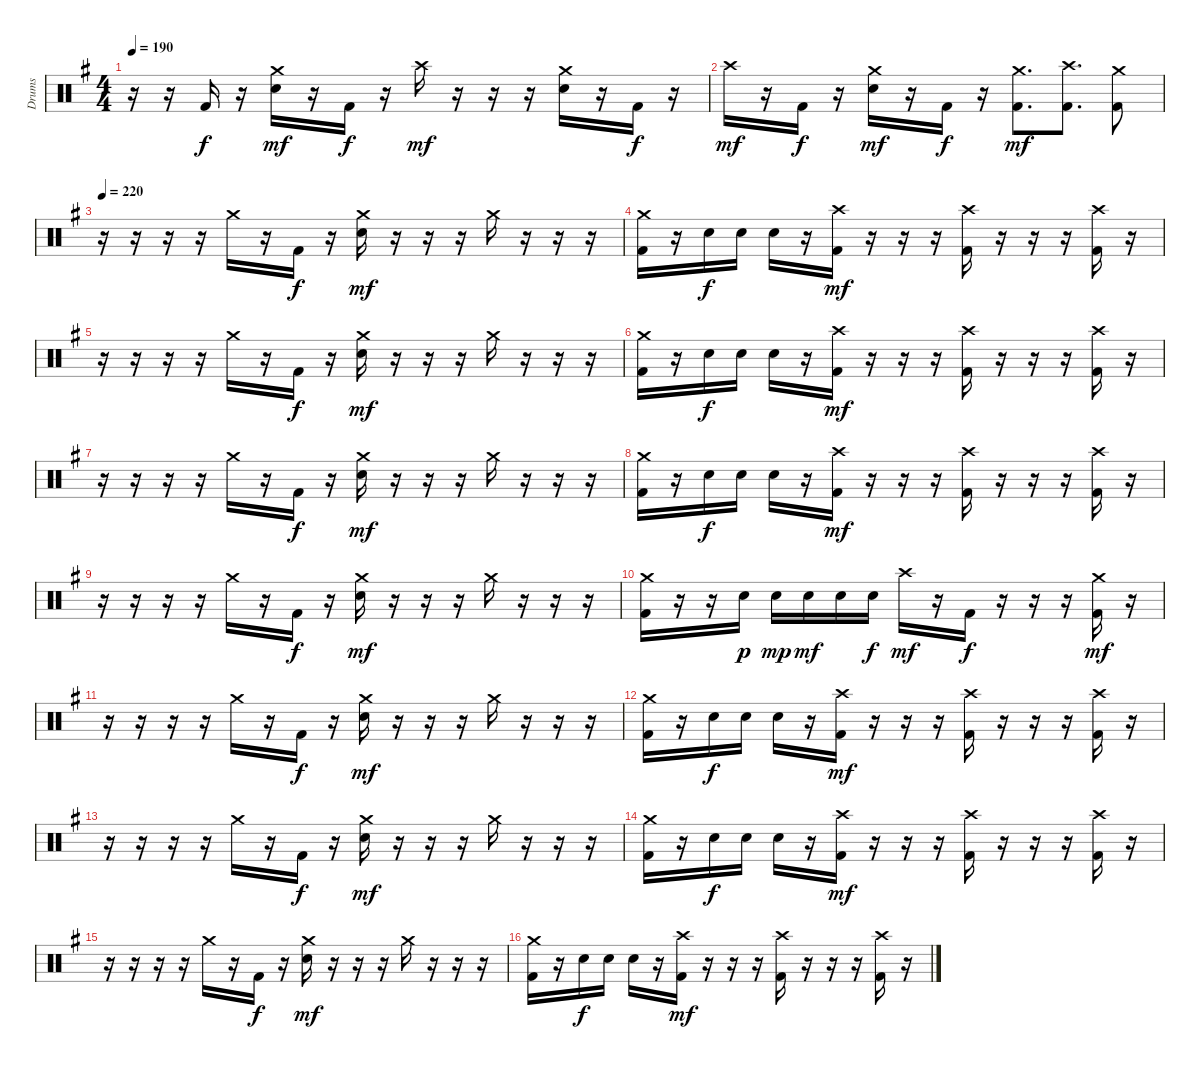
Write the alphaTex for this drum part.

\track ("Drums" "Drums") {instrument percussion}
\staff {score}
\articulation defaults
\ts (4 4)
\tempo 190
\clef neutral
\ks g
r.16{dy f} r.16 "Kick (hit) 2".16 r.16 ("Crash medium (hit)" "Snare (hit) 2").16{dy mf} r.16 "Kick (hit) 2".16{dy f} r.16 "Crash high (hit)".16{dy mf} r.16 r.16 r.16 ("Crash medium (hit)" "Snare (hit) 2").16 r.16 "Kick (hit) 2".16{dy f} r.16 |
"Crash high (hit)".16{dy mf} r.16 "Kick (hit) 2".16{dy f} r.16 ("Crash medium (hit)" "Snare (hit) 2").16{dy mf} r.16 "Kick (hit) 2".16{dy f} r.16 ("Crash medium (hit)" "Kick (hit) 2").8{d dy mf} ("Crash high (hit)" "Kick (hit) 2").8{d} ("Crash medium (hit)" "Kick (hit) 2").8 |
\tempo 220
r.16 r.16 r.16 r.16 "Crash medium (hit)".16 r.16 "Kick (hit) 2".16{dy f} r.16 ("Crash medium (hit)" "Snare (hit) 2").16{dy mf} r.16 r.16 r.16 "Crash medium (hit)".16 r.16 r.16 r.16 |
("Crash medium (hit)" "Kick (hit) 2").16 r.16 "Snare (hit) 2".16{dy f} "Snare (hit) 2".16 "Snare (hit) 2".16 r.16 ("Crash high (hit)" "Kick (hit) 2").16{dy mf} r.16 r.16 r.16 ("Crash high (hit)" "Kick (hit) 2").16 r.16 r.16 r.16 ("Crash high (hit)" "Kick (hit) 2").16 r.16 |
r.16 r.16 r.16 r.16 "Crash medium (hit)".16 r.16 "Kick (hit) 2".16{dy f} r.16 ("Crash medium (hit)" "Snare (hit) 2").16{dy mf} r.16 r.16 r.16 "Crash medium (hit)".16 r.16 r.16 r.16 |
("Crash medium (hit)" "Kick (hit) 2").16 r.16 "Snare (hit) 2".16{dy f} "Snare (hit) 2".16 "Snare (hit) 2".16 r.16 ("Crash high (hit)" "Kick (hit) 2").16{dy mf} r.16 r.16 r.16 ("Crash high (hit)" "Kick (hit) 2").16 r.16 r.16 r.16 ("Crash high (hit)" "Kick (hit) 2").16 r.16 |
r.16 r.16 r.16 r.16 "Crash medium (hit)".16 r.16 "Kick (hit) 2".16{dy f} r.16 ("Crash medium (hit)" "Snare (hit) 2").16{dy mf} r.16 r.16 r.16 "Crash medium (hit)".16 r.16 r.16 r.16 |
("Crash medium (hit)" "Kick (hit) 2").16 r.16 "Snare (hit) 2".16{dy f} "Snare (hit) 2".16 "Snare (hit) 2".16 r.16 ("Crash high (hit)" "Kick (hit) 2").16{dy mf} r.16 r.16 r.16 ("Crash high (hit)" "Kick (hit) 2").16 r.16 r.16 r.16 ("Crash high (hit)" "Kick (hit) 2").16 r.16 |
r.16 r.16 r.16 r.16 "Crash medium (hit)".16 r.16 "Kick (hit) 2".16{dy f} r.16 ("Crash medium (hit)" "Snare (hit) 2").16{dy mf} r.16 r.16 r.16 "Crash medium (hit)".16 r.16 r.16 r.16 |
("Crash medium (hit)" "Kick (hit) 2").16 r.16 r.16 "Snare (hit) 2".16{dy p} "Snare (hit) 2".16{dy mp} "Snare (hit) 2".16{dy mf} "Snare (hit) 2".16 "Snare (hit) 2".16{dy f} "Crash high (hit)".16{dy mf} r.16 "Kick (hit) 2".16{dy f} r.16 r.16 r.16 ("Crash medium (hit)" "Kick (hit) 2").16{dy mf} r.16 |
r.16 r.16 r.16 r.16 "Crash medium (hit)".16 r.16 "Kick (hit) 2".16{dy f} r.16 ("Crash medium (hit)" "Snare (hit) 2").16{dy mf} r.16 r.16 r.16 "Crash medium (hit)".16 r.16 r.16 r.16 |
("Crash medium (hit)" "Kick (hit) 2").16 r.16 "Snare (hit) 2".16{dy f} "Snare (hit) 2".16 "Snare (hit) 2".16 r.16 ("Crash high (hit)" "Kick (hit) 2").16{dy mf} r.16 r.16 r.16 ("Crash high (hit)" "Kick (hit) 2").16 r.16 r.16 r.16 ("Crash high (hit)" "Kick (hit) 2").16 r.16 |
r.16 r.16 r.16 r.16 "Crash medium (hit)".16 r.16 "Kick (hit) 2".16{dy f} r.16 ("Crash medium (hit)" "Snare (hit) 2").16{dy mf} r.16 r.16 r.16 "Crash medium (hit)".16 r.16 r.16 r.16 |
("Crash medium (hit)" "Kick (hit) 2").16 r.16 "Snare (hit) 2".16{dy f} "Snare (hit) 2".16 "Snare (hit) 2".16 r.16 ("Crash high (hit)" "Kick (hit) 2").16{dy mf} r.16 r.16 r.16 ("Crash high (hit)" "Kick (hit) 2").16 r.16 r.16 r.16 ("Crash high (hit)" "Kick (hit) 2").16 r.16 |
r.16 r.16 r.16 r.16 "Crash medium (hit)".16 r.16 "Kick (hit) 2".16{dy f} r.16 ("Crash medium (hit)" "Snare (hit) 2").16{dy mf} r.16 r.16 r.16 "Crash medium (hit)".16 r.16 r.16 r.16 |
("Crash medium (hit)" "Kick (hit) 2").16 r.16 "Snare (hit) 2".16{dy f} "Snare (hit) 2".16 "Snare (hit) 2".16 r.16 ("Crash high (hit)" "Kick (hit) 2").16{dy mf} r.16 r.16 r.16 ("Crash high (hit)" "Kick (hit) 2").16 r.16 r.16 r.16 ("Crash high (hit)" "Kick (hit) 2").16 r.16
